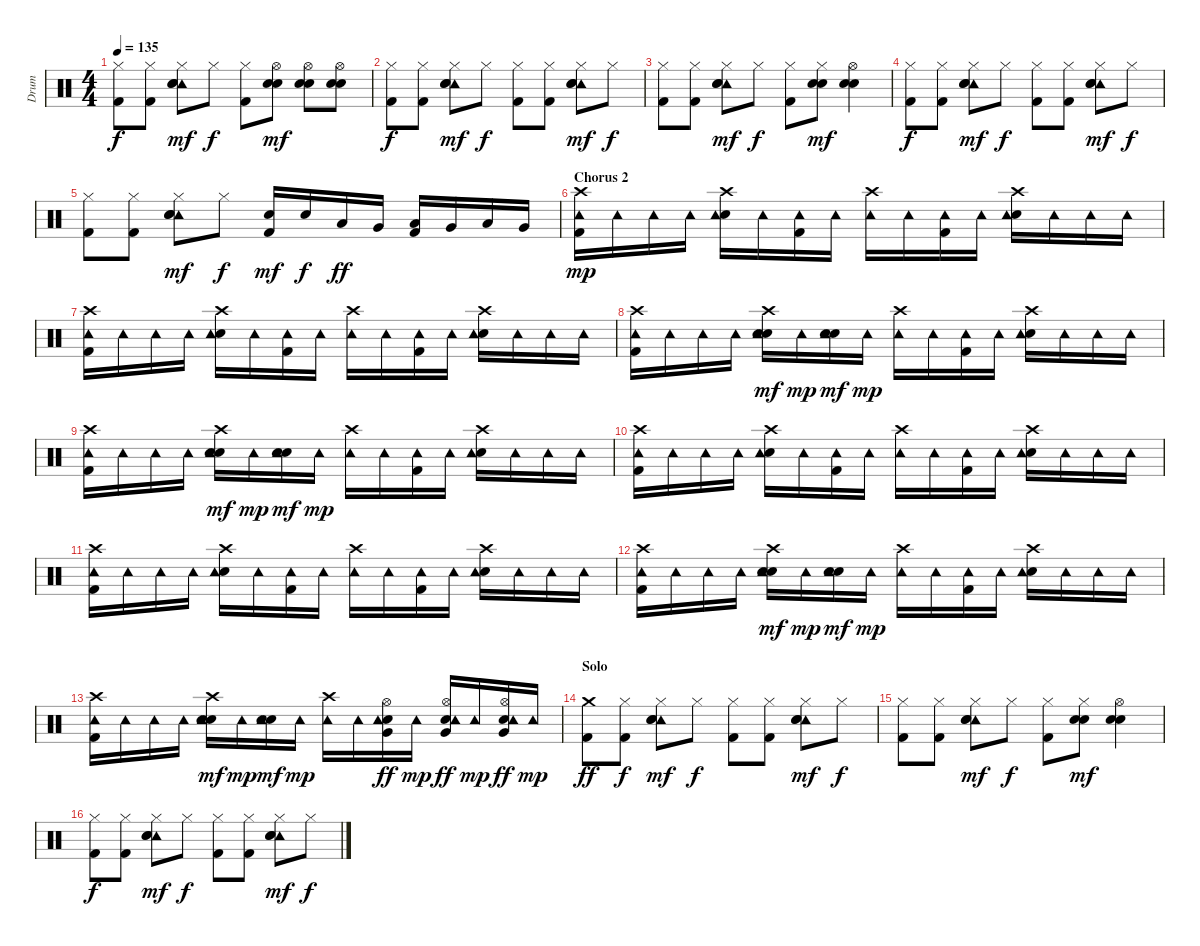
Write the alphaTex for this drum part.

\track ("Drum" "Drum") {instrument percussion}
\staff {score}
\articulation defaults
\ts (4 4)
\tempo 135
\clef neutral
\ks c
("Hi-Hat (closed)" "Kick (hit) 2").8{dy f} ("Hi-Hat (closed)" "Kick (hit) 2").8 ("Hi-Hat (closed)" "Tambourine (hit)" "Electric Snare (hit)" "Hand Clap (hit)").8{dy mf} "Hi-Hat (closed)".8{dy f} ("Hi-Hat (closed)" "Kick (hit) 2").8 ("Hi-Hat (open)" "Electric Snare (hit)" "Hand Clap (hit)").8{dy mf} ("Hi-Hat (open)" "Electric Snare (hit)" "Hand Clap (hit)").8 ("Hi-Hat (open)" "Electric Snare (hit)" "Hand Clap (hit)").8 |
("Hi-Hat (closed)" "Kick (hit) 2").8{dy f} ("Hi-Hat (closed)" "Kick (hit) 2").8 ("Hi-Hat (closed)" "Tambourine (hit)" "Electric Snare (hit)" "Hand Clap (hit)").8{dy mf} "Hi-Hat (closed)".8{dy f} ("Hi-Hat (closed)" "Kick (hit) 2").8 ("Hi-Hat (closed)" "Kick (hit) 2").8 ("Hi-Hat (closed)" "Tambourine (hit)" "Electric Snare (hit)" "Hand Clap (hit)").8{dy mf} "Hi-Hat (closed)".8{dy f} |
("Hi-Hat (closed)" "Kick (hit) 2").8 ("Hi-Hat (closed)" "Kick (hit) 2").8 ("Hi-Hat (closed)" "Tambourine (hit)" "Electric Snare (hit)" "Hand Clap (hit)").8{dy mf} "Hi-Hat (closed)".8{dy f} ("Hi-Hat (closed)" "Kick (hit) 2").8 ("Hi-Hat (closed)" "Electric Snare (hit)" "Hand Clap (hit)").8{dy mf} ("Hi-Hat (open)" "Electric Snare (hit)" "Hand Clap (hit)").4 |
("Hi-Hat (closed)" "Kick (hit) 2").8{dy f} ("Hi-Hat (closed)" "Kick (hit) 2").8 ("Hi-Hat (closed)" "Tambourine (hit)" "Electric Snare (hit)" "Hand Clap (hit)").8{dy mf} "Hi-Hat (closed)".8{dy f} ("Hi-Hat (closed)" "Kick (hit) 2").8 ("Hi-Hat (closed)" "Kick (hit) 2").8 ("Hi-Hat (closed)" "Tambourine (hit)" "Electric Snare (hit)" "Hand Clap (hit)").8{dy mf} "Hi-Hat (closed)".8{dy f} |
("Hi-Hat (closed)" "Kick (hit) 2").8 ("Hi-Hat (closed)" "Kick (hit) 2").8 ("Hi-Hat (closed)" "Tambourine (hit)" "Electric Snare (hit)" "Hand Clap (hit)").8{dy mf} "Hi-Hat (closed)".8{dy f} ("Electric Snare (hit)" "Kick (hit) 2").16{dy mf} "Electric Snare (hit)".16{dy f} "Low Tom (hit)".16{dy ff} "Very Low Tom (hit)".16 ("Low Tom (hit)" "Kick (hit) 2").16 "Very Low Tom (hit)".16 "Low Tom (hit)".16 "Very Low Tom (hit)".16 |
\section ("" "Chorus 2")
("Crash high (hit)" "Tambourine (hit)" "Kick (hit) 2").16{dy mp} "Tambourine (hit)".16 "Tambourine (hit)".16 "Tambourine (hit)".16 ("Crash high (hit)" "Electric Snare (hit)" "Tambourine (hit)").16 "Tambourine (hit)".16 ("Tambourine (hit)" "Kick (hit) 2").16 "Tambourine (hit)".16 ("Crash high (hit)" "Tambourine (hit)").16 "Tambourine (hit)".16 ("Tambourine (hit)" "Kick (hit) 2").16 "Tambourine (hit)".16 ("Crash high (hit)" "Electric Snare (hit)" "Tambourine (hit)").16 "Tambourine (hit)".16 "Tambourine (hit)".16 "Tambourine (hit)".16 |
("Crash high (hit)" "Tambourine (hit)" "Kick (hit) 2").16 "Tambourine (hit)".16 "Tambourine (hit)".16 "Tambourine (hit)".16 ("Crash high (hit)" "Electric Snare (hit)" "Tambourine (hit)").16 "Tambourine (hit)".16 ("Tambourine (hit)" "Kick (hit) 2").16 "Tambourine (hit)".16 ("Crash high (hit)" "Tambourine (hit)").16 "Tambourine (hit)".16 ("Tambourine (hit)" "Kick (hit) 2").16 "Tambourine (hit)".16 ("Crash high (hit)" "Electric Snare (hit)" "Tambourine (hit)").16 "Tambourine (hit)".16 "Tambourine (hit)".16 "Tambourine (hit)".16 |
("Crash high (hit)" "Tambourine (hit)" "Kick (hit) 2").16 "Tambourine (hit)".16 "Tambourine (hit)".16 "Tambourine (hit)".16 ("Crash high (hit)" "Electric Snare (hit)" "Tambourine (hit)" "Hand Clap (hit)").16{dy mf} "Tambourine (hit)".16{dy mp} ("Electric Snare (hit)" "Tambourine (hit)" "Hand Clap (hit)").16{dy mf} "Tambourine (hit)".16{dy mp} ("Crash high (hit)" "Tambourine (hit)").16 "Tambourine (hit)".16 ("Tambourine (hit)" "Kick (hit) 2").16 "Tambourine (hit)".16 ("Crash high (hit)" "Electric Snare (hit)" "Tambourine (hit)").16 "Tambourine (hit)".16 "Tambourine (hit)".16 "Tambourine (hit)".16 |
("Crash high (hit)" "Tambourine (hit)" "Kick (hit) 2").16 "Tambourine (hit)".16 "Tambourine (hit)".16 "Tambourine (hit)".16 ("Crash high (hit)" "Electric Snare (hit)" "Tambourine (hit)" "Hand Clap (hit)").16{dy mf} "Tambourine (hit)".16{dy mp} ("Electric Snare (hit)" "Tambourine (hit)" "Hand Clap (hit)").16{dy mf} "Tambourine (hit)".16{dy mp} ("Crash high (hit)" "Tambourine (hit)").16 "Tambourine (hit)".16 ("Tambourine (hit)" "Kick (hit) 2").16 "Tambourine (hit)".16 ("Crash high (hit)" "Electric Snare (hit)" "Tambourine (hit)").16 "Tambourine (hit)".16 "Tambourine (hit)".16 "Tambourine (hit)".16 |
("Crash high (hit)" "Tambourine (hit)" "Kick (hit) 2").16 "Tambourine (hit)".16 "Tambourine (hit)".16 "Tambourine (hit)".16 ("Crash high (hit)" "Electric Snare (hit)" "Tambourine (hit)").16 "Tambourine (hit)".16 ("Tambourine (hit)" "Kick (hit) 2").16 "Tambourine (hit)".16 ("Crash high (hit)" "Tambourine (hit)").16 "Tambourine (hit)".16 ("Tambourine (hit)" "Kick (hit) 2").16 "Tambourine (hit)".16 ("Crash high (hit)" "Electric Snare (hit)" "Tambourine (hit)").16 "Tambourine (hit)".16 "Tambourine (hit)".16 "Tambourine (hit)".16 |
("Crash high (hit)" "Tambourine (hit)" "Kick (hit) 2").16 "Tambourine (hit)".16 "Tambourine (hit)".16 "Tambourine (hit)".16 ("Crash high (hit)" "Electric Snare (hit)" "Tambourine (hit)").16 "Tambourine (hit)".16 ("Tambourine (hit)" "Kick (hit) 2").16 "Tambourine (hit)".16 ("Crash high (hit)" "Tambourine (hit)").16 "Tambourine (hit)".16 ("Tambourine (hit)" "Kick (hit) 2").16 "Tambourine (hit)".16 ("Crash high (hit)" "Electric Snare (hit)" "Tambourine (hit)").16 "Tambourine (hit)".16 "Tambourine (hit)".16 "Tambourine (hit)".16 |
("Crash high (hit)" "Tambourine (hit)" "Kick (hit) 2").16 "Tambourine (hit)".16 "Tambourine (hit)".16 "Tambourine (hit)".16 ("Crash high (hit)" "Electric Snare (hit)" "Tambourine (hit)" "Hand Clap (hit)").16{dy mf} "Tambourine (hit)".16{dy mp} ("Electric Snare (hit)" "Tambourine (hit)" "Hand Clap (hit)").16{dy mf} "Tambourine (hit)".16{dy mp} ("Crash high (hit)" "Tambourine (hit)").16 "Tambourine (hit)".16 ("Tambourine (hit)" "Kick (hit) 2").16 "Tambourine (hit)".16 ("Crash high (hit)" "Electric Snare (hit)" "Tambourine (hit)").16 "Tambourine (hit)".16 "Tambourine (hit)".16 "Tambourine (hit)".16 |
("Crash high (hit)" "Tambourine (hit)" "Kick (hit) 2").16 "Tambourine (hit)".16 "Tambourine (hit)".16 "Tambourine (hit)".16 ("Crash high (hit)" "Electric Snare (hit)" "Tambourine (hit)" "Hand Clap (hit)").16{dy mf} "Tambourine (hit)".16{dy mp} ("Electric Snare (hit)" "Tambourine (hit)" "Hand Clap (hit)").16{dy mf} "Tambourine (hit)".16{dy mp} ("Crash high (hit)" "Tambourine (hit)").16 "Tambourine (hit)".16 ("Hi-Hat (open)" "Electric Snare (hit)" "Tambourine (hit)" "Very Low Tom (hit)").16{dy ff} "Tambourine (hit)".16{dy mp} ("Hi-Hat (open)" "Electric Snare (hit)" "Tambourine (hit)" "Very Low Tom (hit)").16{dy ff} "Tambourine (hit)".16{dy mp} ("Hi-Hat (open)" "Electric Snare (hit)" "Tambourine (hit)" "Very Low Tom (hit)").16{dy ff} "Tambourine (hit)".16{dy mp} |
\section ("" "Solo")
("Crash medium (hit)" "Kick (hit) 2").8{dy ff} ("Hi-Hat (closed)" "Kick (hit) 2").8{dy f} ("Hi-Hat (closed)" "Tambourine (hit)" "Electric Snare (hit)" "Hand Clap (hit)").8{dy mf} "Hi-Hat (closed)".8{dy f} ("Hi-Hat (closed)" "Kick (hit) 2").8 ("Hi-Hat (closed)" "Kick (hit) 2").8 ("Hi-Hat (closed)" "Tambourine (hit)" "Electric Snare (hit)" "Hand Clap (hit)").8{dy mf} "Hi-Hat (closed)".8{dy f} |
("Hi-Hat (closed)" "Kick (hit) 2").8 ("Hi-Hat (closed)" "Kick (hit) 2").8 ("Hi-Hat (closed)" "Tambourine (hit)" "Electric Snare (hit)" "Hand Clap (hit)").8{dy mf} "Hi-Hat (closed)".8{dy f} ("Hi-Hat (closed)" "Kick (hit) 2").8 ("Hi-Hat (closed)" "Electric Snare (hit)" "Hand Clap (hit)").8{dy mf} ("Hi-Hat (open)" "Electric Snare (hit)" "Hand Clap (hit)").4 |
("Hi-Hat (closed)" "Kick (hit) 2").8{dy f} ("Hi-Hat (closed)" "Kick (hit) 2").8 ("Hi-Hat (closed)" "Tambourine (hit)" "Electric Snare (hit)" "Hand Clap (hit)").8{dy mf} "Hi-Hat (closed)".8{dy f} ("Hi-Hat (closed)" "Kick (hit) 2").8 ("Hi-Hat (closed)" "Kick (hit) 2").8 ("Hi-Hat (closed)" "Tambourine (hit)" "Electric Snare (hit)" "Hand Clap (hit)").8{dy mf} "Hi-Hat (closed)".8{dy f}
